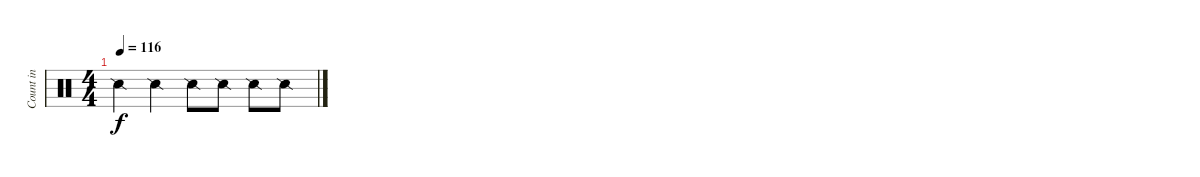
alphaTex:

\track ("Count in" "Count in") {instrument percussion}
\staff {score}
\articulation defaults
\ts (4 4)
\tempo 116
\clef neutral
\ks c "Snare (side stick) 2".4{dy f} "Snare (side stick) 2".4 "Snare (side stick) 2".8 "Snare (side stick) 2".8 "Snare (side stick) 2".8 "Snare (side stick) 2".8
